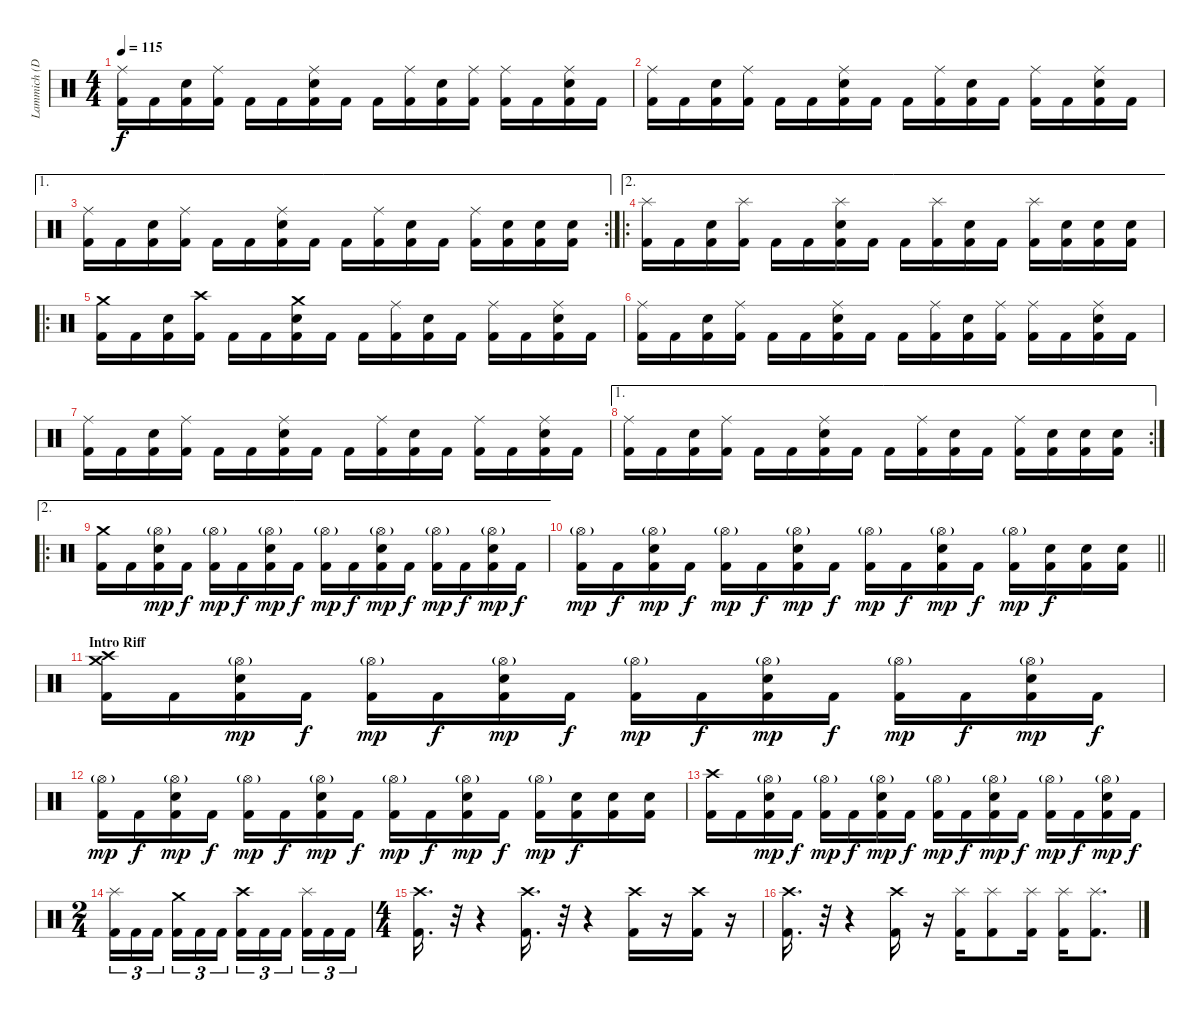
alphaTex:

\track ("Lammich (Drums)" "Lammich (D") {instrument percussion}
\staff {score}
\articulation defaults
\ts (4 4)
\tempo 115
\clef neutral
\ks c
("Ride (middle)" "Kick (hit) 2").16{dy f} "Kick (hit) 2".16 ("Electric Snare (hit)" "Kick (hit) 2").16 ("Ride (middle)" "Kick (hit) 2").16 "Kick (hit) 2".16 "Kick (hit) 2".16 ("Ride (middle)" "Electric Snare (hit)" "Kick (hit) 2").16 "Kick (hit) 2".16 "Kick (hit) 2".16 ("Ride (middle)" "Kick (hit) 2").16 ("Electric Snare (hit)" "Kick (hit) 2").16 ("Ride (middle)" "Kick (hit) 2").16 ("Ride (middle)" "Kick (hit) 2").16 "Kick (hit) 2".16 ("Ride (middle)" "Electric Snare (hit)" "Kick (hit) 2").16 "Kick (hit) 2".16 |
("Ride (middle)" "Kick (hit) 2").16 "Kick (hit) 2".16 ("Electric Snare (hit)" "Kick (hit) 2").16 ("Ride (middle)" "Kick (hit) 2").16 "Kick (hit) 2".16 "Kick (hit) 2".16 ("Ride (middle)" "Electric Snare (hit)" "Kick (hit) 2").16 "Kick (hit) 2".16 "Kick (hit) 2".16 ("Ride (middle)" "Kick (hit) 2").16 ("Electric Snare (hit)" "Kick (hit) 2").16 "Kick (hit) 2".16 ("Ride (middle)" "Kick (hit) 2").16 "Kick (hit) 2".16 ("Ride (middle)" "Electric Snare (hit)" "Kick (hit) 2").16 "Kick (hit) 2".16 |
\ae 1
\rc 2
("Ride (middle)" "Kick (hit) 2").16 "Kick (hit) 2".16 ("Electric Snare (hit)" "Kick (hit) 2").16 ("Ride (middle)" "Kick (hit) 2").16 "Kick (hit) 2".16 "Kick (hit) 2".16 ("Ride (middle)" "Electric Snare (hit)" "Kick (hit) 2").16 "Kick (hit) 2".16 "Kick (hit) 2".16 ("Ride (middle)" "Kick (hit) 2").16 ("Electric Snare (hit)" "Kick (hit) 2").16 "Kick (hit) 2".16 ("Ride (middle)" "Kick (hit) 2").16 ("Electric Snare (hit)" "Kick (hit) 2").16 ("Electric Snare (hit)" "Kick (hit) 2").16 ("Electric Snare (hit)" "Kick (hit) 2").16 |
\ae 2
\ro
("Splash (hit)" "Kick (hit) 2").16 "Kick (hit) 2".16 ("Electric Snare (hit)" "Kick (hit) 2").16 ("Splash (hit)" "Kick (hit) 2").16 "Kick (hit) 2".16 "Kick (hit) 2".16 ("Splash (hit)" "Electric Snare (hit)" "Kick (hit) 2").16 "Kick (hit) 2".16 "Kick (hit) 2".16 ("Splash (hit)" "Kick (hit) 2").16 ("Electric Snare (hit)" "Kick (hit) 2").16 "Kick (hit) 2".16 ("Splash (hit)" "Kick (hit) 2").16 ("Electric Snare (hit)" "Kick (hit) 2").16 ("Electric Snare (hit)" "Kick (hit) 2").16 ("Electric Snare (hit)" "Kick (hit) 2").16 |
\ro
("Crash medium (hit)" "Kick (hit) 2").16 "Kick (hit) 2".16 ("Electric Snare (hit)" "Kick (hit) 2").16 ("Crash high (hit)" "Kick (hit) 2").16 "Kick (hit) 2".16 "Kick (hit) 2".16 ("Crash medium (hit)" "Electric Snare (hit)" "Kick (hit) 2").16 "Kick (hit) 2".16 "Kick (hit) 2".16 ("Ride (middle)" "Kick (hit) 2").16 ("Electric Snare (hit)" "Kick (hit) 2").16 "Kick (hit) 2".16 ("Ride (middle)" "Kick (hit) 2").16 "Kick (hit) 2".16 ("Ride (middle)" "Electric Snare (hit)" "Kick (hit) 2").16 "Kick (hit) 2".16 |
("Ride (middle)" "Kick (hit) 2").16 "Kick (hit) 2".16 ("Electric Snare (hit)" "Kick (hit) 2").16 ("Ride (middle)" "Kick (hit) 2").16 "Kick (hit) 2".16 "Kick (hit) 2".16 ("Ride (middle)" "Electric Snare (hit)" "Kick (hit) 2").16 "Kick (hit) 2".16 "Kick (hit) 2".16 ("Ride (middle)" "Kick (hit) 2").16 ("Electric Snare (hit)" "Kick (hit) 2").16 ("Ride (middle)" "Kick (hit) 2").16 ("Ride (middle)" "Kick (hit) 2").16 "Kick (hit) 2".16 ("Ride (middle)" "Electric Snare (hit)" "Kick (hit) 2").16 "Kick (hit) 2".16 |
("Ride (middle)" "Kick (hit) 2").16 "Kick (hit) 2".16 ("Electric Snare (hit)" "Kick (hit) 2").16 ("Ride (middle)" "Kick (hit) 2").16 "Kick (hit) 2".16 "Kick (hit) 2".16 ("Ride (middle)" "Electric Snare (hit)" "Kick (hit) 2").16 "Kick (hit) 2".16 "Kick (hit) 2".16 ("Ride (middle)" "Kick (hit) 2").16 ("Electric Snare (hit)" "Kick (hit) 2").16 "Kick (hit) 2".16 ("Ride (middle)" "Kick (hit) 2").16 "Kick (hit) 2".16 ("Ride (middle)" "Electric Snare (hit)" "Kick (hit) 2").16 "Kick (hit) 2".16 |
\ae 1
\rc 2
("Ride (middle)" "Kick (hit) 2").16 "Kick (hit) 2".16 ("Electric Snare (hit)" "Kick (hit) 2").16 ("Ride (middle)" "Kick (hit) 2").16 "Kick (hit) 2".16 "Kick (hit) 2".16 ("Ride (middle)" "Electric Snare (hit)" "Kick (hit) 2").16 "Kick (hit) 2".16 "Kick (hit) 2".16 ("Ride (middle)" "Kick (hit) 2").16 ("Electric Snare (hit)" "Kick (hit) 2").16 "Kick (hit) 2".16 ("Ride (middle)" "Kick (hit) 2").16 ("Electric Snare (hit)" "Kick (hit) 2").16 ("Electric Snare (hit)" "Kick (hit) 2").16 ("Electric Snare (hit)" "Kick (hit) 2").16 |
\ae 2
\ro
("Crash medium (hit)" "Kick (hit) 2").16 "Kick (hit) 2".16 ("Hi-Hat (open)"{g} "Electric Snare (hit)" "Kick (hit) 2").16{dy mp} "Kick (hit) 2".16{dy f} ("Hi-Hat (open)"{g} "Kick (hit) 2").16{dy mp} "Kick (hit) 2".16{dy f} ("Hi-Hat (open)"{g} "Electric Snare (hit)" "Kick (hit) 2").16{dy mp} "Kick (hit) 2".16{dy f} ("Hi-Hat (open)"{g} "Kick (hit) 2").16{dy mp} "Kick (hit) 2".16{dy f} ("Hi-Hat (open)"{g} "Electric Snare (hit)" "Kick (hit) 2").16{dy mp} "Kick (hit) 2".16{dy f} ("Hi-Hat (open)"{g} "Kick (hit) 2").16{dy mp} "Kick (hit) 2".16{dy f} ("Hi-Hat (open)"{g} "Electric Snare (hit)" "Kick (hit) 2").16{dy mp} "Kick (hit) 2".16{dy f} |
\barLineRight lightlight
("Hi-Hat (open)"{g} "Kick (hit) 2").16{dy mp} "Kick (hit) 2".16{dy f} ("Hi-Hat (open)"{g} "Electric Snare (hit)" "Kick (hit) 2").16{dy mp} "Kick (hit) 2".16{dy f} ("Hi-Hat (open)"{g} "Kick (hit) 2").16{dy mp} "Kick (hit) 2".16{dy f} ("Hi-Hat (open)"{g} "Electric Snare (hit)" "Kick (hit) 2").16{dy mp} "Kick (hit) 2".16{dy f} ("Hi-Hat (open)"{g} "Kick (hit) 2").16{dy mp} "Kick (hit) 2".16{dy f} ("Hi-Hat (open)"{g} "Electric Snare (hit)" "Kick (hit) 2").16{dy mp} "Kick (hit) 2".16{dy f} ("Hi-Hat (open)"{g} "Kick (hit) 2").16{dy mp} ("Electric Snare (hit)" "Kick (hit) 2").16{dy f} ("Electric Snare (hit)" "Kick (hit) 2").16 ("Electric Snare (hit)" "Kick (hit) 2").16 |
\section ("" "Intro Riff")
("Crash medium (hit)" "Crash high (hit)" "Kick (hit) 2").16 "Kick (hit) 2".16 ("Hi-Hat (open)"{g} "Electric Snare (hit)" "Kick (hit) 2").16{dy mp} "Kick (hit) 2".16{dy f} ("Hi-Hat (open)"{g} "Kick (hit) 2").16{dy mp} "Kick (hit) 2".16{dy f} ("Hi-Hat (open)"{g} "Electric Snare (hit)" "Kick (hit) 2").16{dy mp} "Kick (hit) 2".16{dy f} ("Hi-Hat (open)"{g} "Kick (hit) 2").16{dy mp} "Kick (hit) 2".16{dy f} ("Hi-Hat (open)"{g} "Electric Snare (hit)" "Kick (hit) 2").16{dy mp} "Kick (hit) 2".16{dy f} ("Hi-Hat (open)"{g} "Kick (hit) 2").16{dy mp} "Kick (hit) 2".16{dy f} ("Hi-Hat (open)"{g} "Electric Snare (hit)" "Kick (hit) 2").16{dy mp} "Kick (hit) 2".16{dy f} |
("Hi-Hat (open)"{g} "Kick (hit) 2").16{dy mp} "Kick (hit) 2".16{dy f} ("Hi-Hat (open)"{g} "Electric Snare (hit)" "Kick (hit) 2").16{dy mp} "Kick (hit) 2".16{dy f} ("Hi-Hat (open)"{g} "Kick (hit) 2").16{dy mp} "Kick (hit) 2".16{dy f} ("Hi-Hat (open)"{g} "Electric Snare (hit)" "Kick (hit) 2").16{dy mp} "Kick (hit) 2".16{dy f} ("Hi-Hat (open)"{g} "Kick (hit) 2").16{dy mp} "Kick (hit) 2".16{dy f} ("Hi-Hat (open)"{g} "Electric Snare (hit)" "Kick (hit) 2").16{dy mp} "Kick (hit) 2".16{dy f} ("Hi-Hat (open)"{g} "Kick (hit) 2").16{dy mp} ("Electric Snare (hit)" "Kick (hit) 2").16{dy f} ("Electric Snare (hit)" "Kick (hit) 2").16 ("Electric Snare (hit)" "Kick (hit) 2").16 |
("Crash high (hit)" "Kick (hit) 2").16 "Kick (hit) 2".16 ("Hi-Hat (open)"{g} "Electric Snare (hit)" "Kick (hit) 2").16{dy mp} "Kick (hit) 2".16{dy f} ("Hi-Hat (open)"{g} "Kick (hit) 2").16{dy mp} "Kick (hit) 2".16{dy f} ("Hi-Hat (open)"{g} "Electric Snare (hit)" "Kick (hit) 2").16{dy mp} "Kick (hit) 2".16{dy f} ("Hi-Hat (open)"{g} "Kick (hit) 2").16{dy mp} "Kick (hit) 2".16{dy f} ("Hi-Hat (open)"{g} "Electric Snare (hit)" "Kick (hit) 2").16{dy mp} "Kick (hit) 2".16{dy f} ("Hi-Hat (open)"{g} "Kick (hit) 2").16{dy mp} "Kick (hit) 2".16{dy f} ("Hi-Hat (open)"{g} "Electric Snare (hit)" "Kick (hit) 2").16{dy mp} "Kick (hit) 2".16{dy f} |
\ts (2 4)
("Splash (hit)" "Kick (hit) 2").16{tu (3 2)} "Kick (hit) 2".16{tu (3 2)} "Kick (hit) 2".16{tu (3 2) beam splitsecondary} ("Crash medium (hit)" "Kick (hit) 2").16{tu (3 2)} "Kick (hit) 2".16{tu (3 2)} "Kick (hit) 2".16{tu (3 2)} ("Crash high (hit)" "Kick (hit) 2").16{tu (3 2)} "Kick (hit) 2".16{tu (3 2)} "Kick (hit) 2".16{tu (3 2) beam splitsecondary} ("Splash (hit)" "Kick (hit) 2").16{tu (3 2)} "Kick (hit) 2".16{tu (3 2)} "Kick (hit) 2".16{tu (3 2)} |
\ts (4 4)
("Crash high (hit)" "Kick (hit) 2").16{d} r.32{volume 0} r.4 ("Crash high (hit)" "Kick (hit) 2").16{d volume 16} r.32{volume 0} r.4 ("Crash high (hit)" "Kick (hit) 2").16{volume 16} r.16{volume 0} ("Crash high (hit)" "Kick (hit) 2").16{volume 16} r.16{volume 0} |
("Crash high (hit)" "Kick (hit) 2").16{d volume 16} r.32{volume 0} r.4 ("Crash high (hit)" "Kick (hit) 2").16{volume 16} r.16{volume 0} ("Splash (hit)" "Kick (hit) 2").16{volume 16} ("Splash (hit)" "Kick (hit) 2").8 ("Splash (hit)" "Kick (hit) 2").16 ("Splash (hit)" "Kick (hit) 2").16 ("Splash (hit)" "Kick (hit) 2").8{d}
